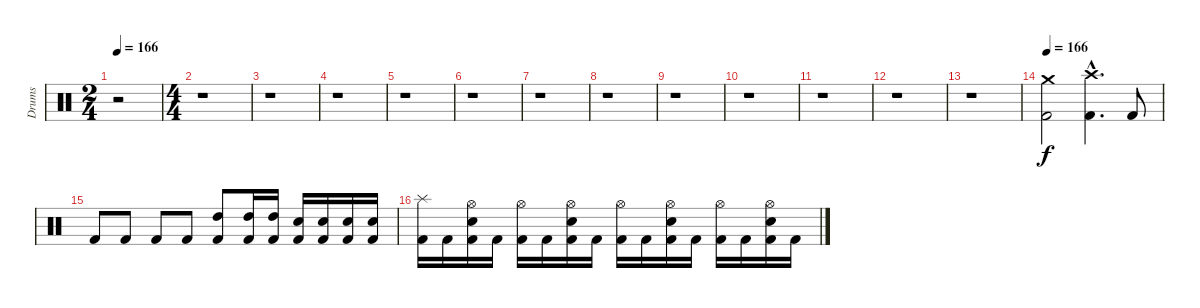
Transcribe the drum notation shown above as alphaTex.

\track ("Drums" "Drums") {instrument percussion}
\staff {score}
\articulation defaults
\ts (2 4)
\tempo 166
\tempo 120
\tempo 166
\clef neutral
\ks c
r.2{dy f} |
\ts (4 4)
r.1 |
r.1 |
r.1 |
r.1 |
r.1 |
r.1 |
r.1 |
r.1 |
r.1 |
r.1 |
r.1 |
r.1 |
\section ("" "")
\tempo 166
("Kick (hit) 2" "Crash medium (hit)").2 ("Kick (hit) 2"{hac} "Crash high (hit)"{hac}).4{d} "Kick (hit) 2".8 |
"Kick (hit) 2".8 "Kick (hit) 2".8 "Kick (hit) 2".8 "Kick (hit) 2".8 ("Kick (hit) 2" "High Tom (hit)").8 ("Kick (hit) 2" "High Tom (hit)").16 ("Kick (hit) 2" "High Tom (hit)").16 ("Kick (hit) 2" "Electric Snare (hit)").16 ("Kick (hit) 2" "Electric Snare (hit)").16 ("Kick (hit) 2" "Electric Snare (hit)").16 ("Kick (hit) 2" "Electric Snare (hit)").16 |
("Kick (hit) 2" "Splash (hit)").16 "Kick (hit) 2".16 ("Kick (hit) 2" "Electric Snare (hit)" "Hi-Hat (open)").16 "Kick (hit) 2".16 ("Kick (hit) 2" "Hi-Hat (open)").16 "Kick (hit) 2".16 ("Kick (hit) 2" "Electric Snare (hit)" "Hi-Hat (open)").16 "Kick (hit) 2".16 ("Kick (hit) 2" "Hi-Hat (open)").16 "Kick (hit) 2".16 ("Kick (hit) 2" "Electric Snare (hit)" "Hi-Hat (open)").16 "Kick (hit) 2".16 ("Kick (hit) 2" "Hi-Hat (open)").16 "Kick (hit) 2".16 ("Kick (hit) 2" "Electric Snare (hit)" "Hi-Hat (open)").16 "Kick (hit) 2".16
